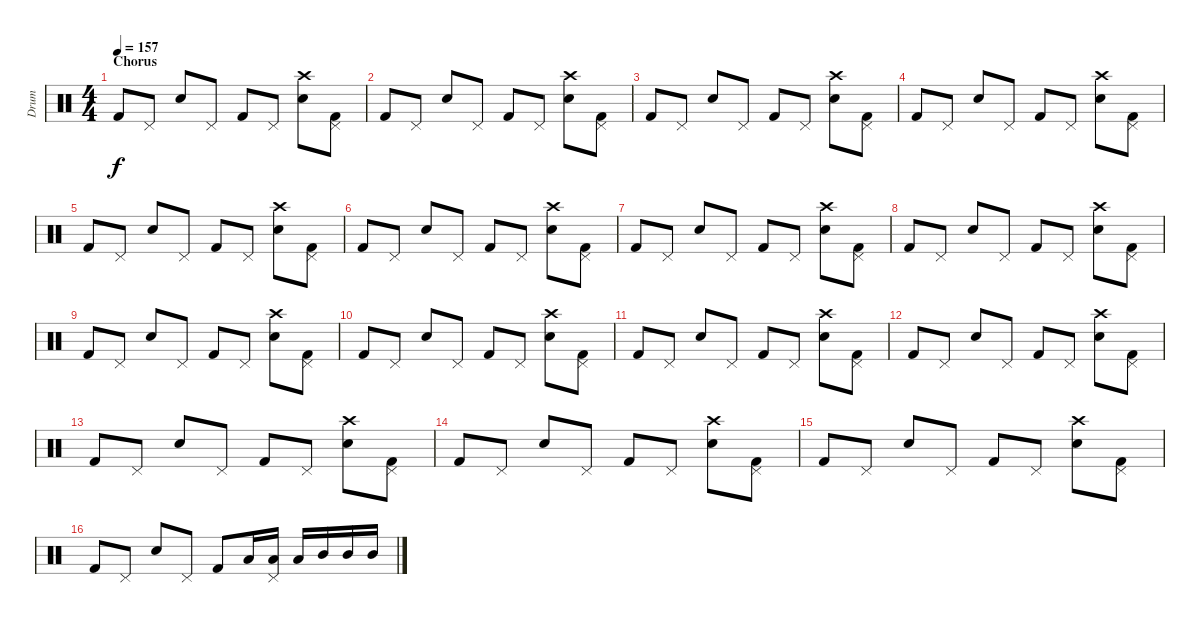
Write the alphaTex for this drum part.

\track ("Drum" "Drum") {instrument percussion}
\staff {score}
\articulation defaults
\ts (4 4)
\section ("" "Chorus")
\tempo 157
\clef neutral
\ks c "Kick (hit) 2".8{dy f} "Pedal Hi-Hat (hit)".8 "Electric Snare (hit)".8 "Pedal Hi-Hat (hit)".8 "Kick (hit) 2".8 "Pedal Hi-Hat (hit)".8
("Crash high (hit)" "Electric Snare (hit)").8 ("Pedal Hi-Hat (hit)" "Kick (hit) 2").8 |
"Kick (hit) 2".8 "Pedal Hi-Hat (hit)".8 "Electric Snare (hit)".8 "Pedal Hi-Hat (hit)".8 "Kick (hit) 2".8 "Pedal Hi-Hat (hit)".8 ("Crash high (hit)" "Electric Snare (hit)").8 ("Pedal Hi-Hat (hit)" "Kick (hit) 2").8 |
"Kick (hit) 2".8 "Pedal Hi-Hat (hit)".8 "Electric Snare (hit)".8 "Pedal Hi-Hat (hit)".8 "Kick (hit) 2".8 "Pedal Hi-Hat (hit)".8 ("Crash high (hit)" "Electric Snare (hit)").8 ("Pedal Hi-Hat (hit)" "Kick (hit) 2").8 |
"Kick (hit) 2".8 "Pedal Hi-Hat (hit)".8 "Electric Snare (hit)".8 "Pedal Hi-Hat (hit)".8 "Kick (hit) 2".8 "Pedal Hi-Hat (hit)".8 ("Crash high (hit)" "Electric Snare (hit)").8 ("Pedal Hi-Hat (hit)" "Kick (hit) 2").8 |
"Kick (hit) 2".8 "Pedal Hi-Hat (hit)".8 "Electric Snare (hit)".8 "Pedal Hi-Hat (hit)".8 "Kick (hit) 2".8 "Pedal Hi-Hat (hit)".8 ("Crash high (hit)" "Electric Snare (hit)").8 ("Pedal Hi-Hat (hit)" "Kick (hit) 2").8 |
"Kick (hit) 2".8 "Pedal Hi-Hat (hit)".8 "Electric Snare (hit)".8 "Pedal Hi-Hat (hit)".8 "Kick (hit) 2".8 "Pedal Hi-Hat (hit)".8 ("Crash high (hit)" "Electric Snare (hit)").8 ("Pedal Hi-Hat (hit)" "Kick (hit) 2").8 |
"Kick (hit) 2".8 "Pedal Hi-Hat (hit)".8 "Electric Snare (hit)".8 "Pedal Hi-Hat (hit)".8 "Kick (hit) 2".8 "Pedal Hi-Hat (hit)".8 ("Crash high (hit)" "Electric Snare (hit)").8 ("Pedal Hi-Hat (hit)" "Kick (hit) 2").8 |
"Kick (hit) 2".8 "Pedal Hi-Hat (hit)".8 "Electric Snare (hit)".8 "Pedal Hi-Hat (hit)".8 "Kick (hit) 2".8 "Pedal Hi-Hat (hit)".8 ("Crash high (hit)" "Electric Snare (hit)").8 ("Pedal Hi-Hat (hit)" "Kick (hit) 2").8 |
"Kick (hit) 2".8 "Pedal Hi-Hat (hit)".8 "Electric Snare (hit)".8 "Pedal Hi-Hat (hit)".8 "Kick (hit) 2".8 "Pedal Hi-Hat (hit)".8 ("Crash high (hit)" "Electric Snare (hit)").8 ("Pedal Hi-Hat (hit)" "Kick (hit) 2").8 |
"Kick (hit) 2".8 "Pedal Hi-Hat (hit)".8 "Electric Snare (hit)".8 "Pedal Hi-Hat (hit)".8 "Kick (hit) 2".8 "Pedal Hi-Hat (hit)".8 ("Crash high (hit)" "Electric Snare (hit)").8 ("Pedal Hi-Hat (hit)" "Kick (hit) 2").8 |
"Kick (hit) 2".8 "Pedal Hi-Hat (hit)".8 "Electric Snare (hit)".8 "Pedal Hi-Hat (hit)".8 "Kick (hit) 2".8 "Pedal Hi-Hat (hit)".8 ("Crash high (hit)" "Electric Snare (hit)").8 ("Pedal Hi-Hat (hit)" "Kick (hit) 2").8 |
"Kick (hit) 2".8 "Pedal Hi-Hat (hit)".8 "Electric Snare (hit)".8 "Pedal Hi-Hat (hit)".8 "Kick (hit) 2".8 "Pedal Hi-Hat (hit)".8 ("Crash high (hit)" "Electric Snare (hit)").8 ("Pedal Hi-Hat (hit)" "Kick (hit) 2").8 |
"Kick (hit) 2".8 "Pedal Hi-Hat (hit)".8 "Electric Snare (hit)".8 "Pedal Hi-Hat (hit)".8 "Kick (hit) 2".8 "Pedal Hi-Hat (hit)".8 ("Crash high (hit)" "Electric Snare (hit)").8 ("Pedal Hi-Hat (hit)" "Kick (hit) 2").8 |
"Kick (hit) 2".8 "Pedal Hi-Hat (hit)".8 "Electric Snare (hit)".8 "Pedal Hi-Hat (hit)".8 "Kick (hit) 2".8 "Pedal Hi-Hat (hit)".8 ("Crash high (hit)" "Electric Snare (hit)").8 ("Pedal Hi-Hat (hit)" "Kick (hit) 2").8 |
"Kick (hit) 2".8 "Pedal Hi-Hat (hit)".8 "Electric Snare (hit)".8 "Pedal Hi-Hat (hit)".8 "Kick (hit) 2".8 "Pedal Hi-Hat (hit)".8 ("Crash high (hit)" "Electric Snare (hit)").8 ("Pedal Hi-Hat (hit)" "Kick (hit) 2").8 |
"Kick (hit) 2".8 "Pedal Hi-Hat (hit)".8 "Electric Snare (hit)".8 "Pedal Hi-Hat (hit)".8 "Kick (hit) 2".8 "Low Floor Tom (hit)".16 ("Pedal Hi-Hat (hit)" "Low Floor Tom (hit)").16 "Low Floor Tom (hit)".16 "Mid Tom (hit)".16 "Mid Tom (hit)".16 "Mid Tom (hit)".16
